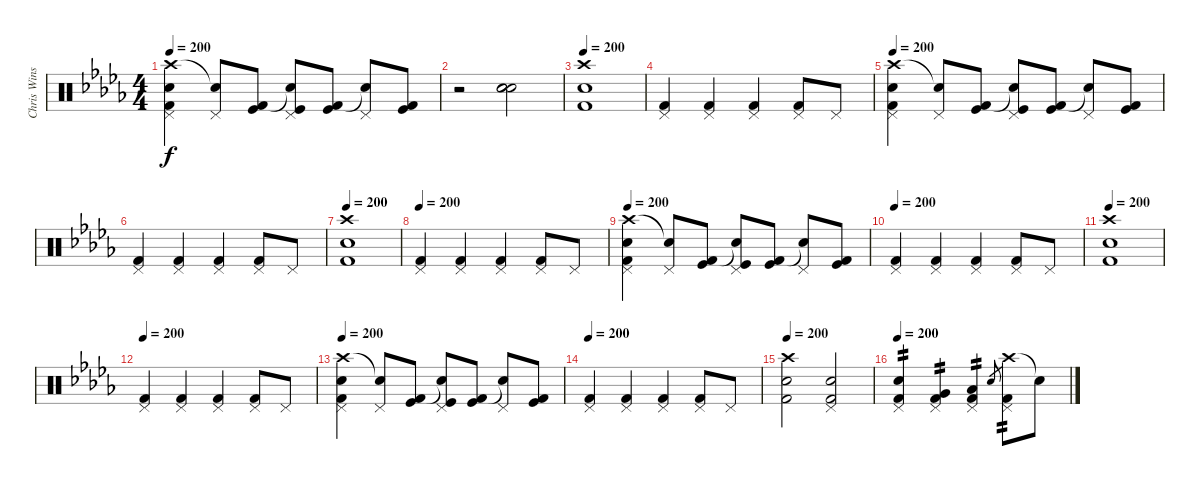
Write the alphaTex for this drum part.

\track ("Chris Winship (Drums)" "Chris Wins") {instrument percussion}
\staff {score}
\articulation defaults
\ts (4 4)
\tempo 200
\clef neutral
\ks bbminor
("Crash high (hit)" "Electric Snare (hit)" "Kick (hit) 2" "Pedal Hi-Hat (hit)").4{dy f} ("Snare (hit)"{t} "Pedal Hi-Hat (hit)").8 ("Kick (hit) 2" "Kick (hit)").8 ("Snare (hit)"{t} "Pedal Hi-Hat (hit)" "Kick (hit)").8 ("Kick (hit) 2" "Kick (hit)").8 ("Snare (hit)"{t} "Pedal Hi-Hat (hit)").8 ("Kick (hit) 2" "Kick (hit)").8 |
r.2 ("Electric Snare (hit)" "Electric Snare (hit)" "Electric Snare (hit)").2{bd 240} |
\tempo 200
("Crash high (hit)" "Kick (hit) 2" "Electric Snare (hit)").1 |
("Pedal Hi-Hat (hit)" "Kick (hit) 2").4 ("Pedal Hi-Hat (hit)" "Kick (hit) 2").4 ("Pedal Hi-Hat (hit)" "Kick (hit) 2").4 ("Pedal Hi-Hat (hit)" "Kick (hit) 2").8 "Pedal Hi-Hat (hit)".8 |
\tempo 200
("Crash high (hit)" "Electric Snare (hit)" "Kick (hit) 2" "Pedal Hi-Hat (hit)").4 ("Snare (hit)"{t} "Pedal Hi-Hat (hit)").8 ("Kick (hit) 2" "Kick (hit)").8 ("Snare (hit)"{t} "Pedal Hi-Hat (hit)" "Kick (hit)").8 ("Kick (hit) 2" "Kick (hit)").8 ("Snare (hit)"{t} "Pedal Hi-Hat (hit)").8 ("Kick (hit) 2" "Kick (hit)").8 |
("Pedal Hi-Hat (hit)" "Kick (hit) 2").4 ("Pedal Hi-Hat (hit)" "Kick (hit) 2").4 ("Pedal Hi-Hat (hit)" "Kick (hit) 2").4 ("Pedal Hi-Hat (hit)" "Kick (hit) 2").8 "Pedal Hi-Hat (hit)".8 |
\tempo 200
("Crash high (hit)" "Kick (hit) 2" "Electric Snare (hit)").1 |
\tempo 200
("Pedal Hi-Hat (hit)" "Kick (hit) 2").4 ("Pedal Hi-Hat (hit)" "Kick (hit) 2").4 ("Pedal Hi-Hat (hit)" "Kick (hit) 2").4 ("Pedal Hi-Hat (hit)" "Kick (hit) 2").8 "Pedal Hi-Hat (hit)".8 |
\tempo 200
("Crash high (hit)" "Electric Snare (hit)" "Kick (hit) 2" "Pedal Hi-Hat (hit)").4 ("Snare (hit)"{t} "Pedal Hi-Hat (hit)").8 ("Kick (hit) 2" "Kick (hit)").8 ("Snare (hit)"{t} "Pedal Hi-Hat (hit)" "Kick (hit)").8 ("Kick (hit) 2" "Kick (hit)").8 ("Snare (hit)"{t} "Pedal Hi-Hat (hit)").8 ("Kick (hit) 2" "Kick (hit)").8 |
\tempo 200
("Pedal Hi-Hat (hit)" "Kick (hit) 2").4 ("Pedal Hi-Hat (hit)" "Kick (hit) 2").4 ("Pedal Hi-Hat (hit)" "Kick (hit) 2").4 ("Pedal Hi-Hat (hit)" "Kick (hit) 2").8 "Pedal Hi-Hat (hit)".8 |
\tempo 200
("Crash high (hit)" "Kick (hit) 2" "Electric Snare (hit)").1 |
\tempo 200
("Pedal Hi-Hat (hit)" "Kick (hit) 2").4 ("Pedal Hi-Hat (hit)" "Kick (hit) 2").4 ("Pedal Hi-Hat (hit)" "Kick (hit) 2").4 ("Pedal Hi-Hat (hit)" "Kick (hit) 2").8 "Pedal Hi-Hat (hit)".8 |
\tempo 200
("Crash high (hit)" "Electric Snare (hit)" "Kick (hit) 2" "Pedal Hi-Hat (hit)").4 ("Snare (hit)"{t} "Pedal Hi-Hat (hit)").8 ("Kick (hit) 2" "Kick (hit)").8 ("Snare (hit)"{t} "Pedal Hi-Hat (hit)" "Kick (hit)").8 ("Kick (hit) 2" "Kick (hit)").8 ("Snare (hit)"{t} "Pedal Hi-Hat (hit)").8 ("Kick (hit) 2" "Kick (hit)").8 |
\tempo 200
("Pedal Hi-Hat (hit)" "Kick (hit) 2").4 ("Pedal Hi-Hat (hit)" "Kick (hit) 2").4 ("Pedal Hi-Hat (hit)" "Kick (hit) 2").4 ("Pedal Hi-Hat (hit)" "Kick (hit) 2").8 "Pedal Hi-Hat (hit)".8 |
\tempo 200
("Crash high (hit)" "Kick (hit) 2" "Electric Snare (hit)").2 ("Pedal Hi-Hat (hit)" "Kick (hit) 2" "Electric Snare (hit)").2 |
\tempo 200
("Electric Snare (hit)" "Kick (hit) 2" "Pedal Hi-Hat (hit)").4{tp 2} ("Very Low Tom (hit)" "Kick (hit) 2" "Pedal Hi-Hat (hit)").4{tp 2} ("Low Floor Tom (hit)" "Kick (hit) 2" "Pedal Hi-Hat (hit)").4{tp 2} "Electric Snare (hit)".8{gr} ("Crash high (hit)" "Kick (hit) 2" "Pedal Hi-Hat (hit)").8{tp 2} "Snare (hit)"{t}.8
